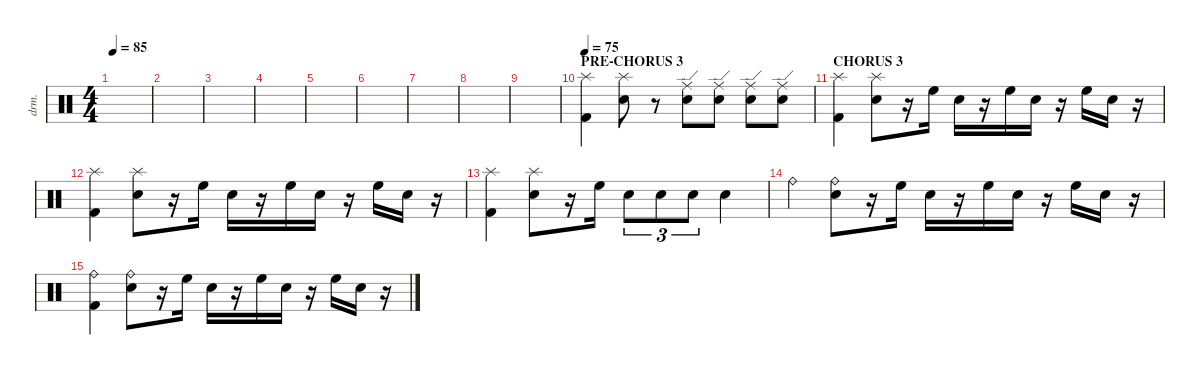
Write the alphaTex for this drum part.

\defaultSystemsLayout 4
\hideDynamics
\bracketExtendMode nobrackets
\otherSystemsTrackNameOrientation horizontal
\track ("Drumkit" "drm.") {instrument percussion}
\staff {score}
\articulation defaults
\ts (4 4)
\tempo 85
\clef neutral
\ks c
|
|
|
|
|
|
|
|
|
\section ("" "PRE-CHORUS 3")
\tempo 75
("Kick (hit) 2" "Splash (hit)").4{beam Down} ("Snare (hit) 2" "Splash (hit)").8{beam Down} r.8{beam Down} ("Snare (hit) 2" "Ride (edge)").8{beam Down} ("Snare (hit) 2" "Ride (edge)").8{beam Down} ("Snare (hit) 2" "Ride (edge)").8{beam Down} ("Snare (hit) 2" "Ride (edge)").8{beam Down} |
\section ("" "CHORUS 3")
("Kick (hit) 2" "Splash (hit)").4{beam Down} ("Snare (hit) 2" "Splash (hit)").8{beam Down} r.16{beam Down} "High Floor Tom (hit)".16{beam Down} "Snare (hit) 2".16{beam Down} r.16{beam Down} "High Floor Tom (hit)".16{beam Down} "Snare (hit) 2".16{beam Down} r.16{beam Down} "High Floor Tom (hit)".16{beam Down} "Snare (hit) 2".16{beam Down} r.16{beam Down} |
("Kick (hit) 2" "Splash (hit)").4{beam Down} ("Snare (hit) 2" "Splash (hit)").8{beam Down} r.16{beam Down} "High Floor Tom (hit)".16{beam Down} "Snare (hit) 2".16{beam Down} r.16{beam Down} "High Floor Tom (hit)".16{beam Down} "Snare (hit) 2".16{beam Down} r.16{beam Down} "High Floor Tom (hit)".16{beam Down} "Snare (hit) 2".16{beam Down} r.16{beam Down} |
("Kick (hit) 2" "Splash (hit)").4{beam Down} ("Snare (hit) 2" "Splash (hit)").8{beam Down} r.16{beam Down} "High Floor Tom (hit)".16{beam Down} "Snare (hit) 2".8{tu (3 2) beam Down} "Snare (hit) 2".8{tu (3 2) beam Down} "Snare (hit) 2".8{tu (3 2) beam Down} "Snare (hit) 2".4{beam Down} |
"Ride (bell)".4{beam Down} ("Snare (hit) 2" "Ride (bell)").8{beam Down} r.16{beam Down} "High Floor Tom (hit)".16{beam Down} "Snare (hit) 2".16{beam Down} r.16{beam Down} "High Floor Tom (hit)".16{beam Down} "Snare (hit) 2".16{beam Down} r.16{beam Down} "High Floor Tom (hit)".16{beam Down} "Snare (hit) 2".16{beam Down} r.16{beam Down} |
("Kick (hit) 2" "Ride (bell)").4{beam Down} ("Snare (hit) 2" "Ride (bell)").8{beam Down} r.16{beam Down} "High Floor Tom (hit)".16{beam Down} "Snare (hit) 2".16{beam Down} r.16{beam Down} "High Floor Tom (hit)".16{beam Down} "Snare (hit) 2".16{beam Down} r.16{beam Down} "High Floor Tom (hit)".16{beam Down} "Snare (hit) 2".16{beam Down} r.16{beam Down}
